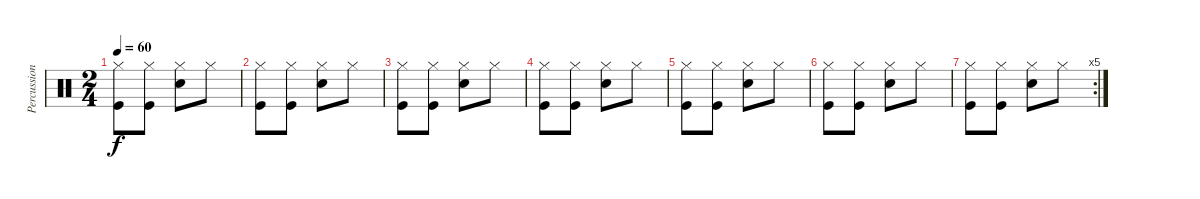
\track ("Percussions" "Percussion") {instrument percussion}
\staff {score}
\articulation defaults
\ts (2 4)
\tempo 60
\clef neutral
\ks c
("Hi-Hat (closed)" "Kick (hit)").8{dy f} ("Hi-Hat (closed)" "Kick (hit)").8 ("Hi-Hat (closed)" "Electric Snare (hit)").8 "Hi-Hat (closed)".8 |
("Hi-Hat (closed)" "Kick (hit)").8 ("Hi-Hat (closed)" "Kick (hit)").8 ("Hi-Hat (closed)" "Electric Snare (hit)").8 "Hi-Hat (closed)".8 |
("Hi-Hat (closed)" "Kick (hit)").8 ("Hi-Hat (closed)" "Kick (hit)").8 ("Hi-Hat (closed)" "Electric Snare (hit)").8 "Hi-Hat (closed)".8 |
("Hi-Hat (closed)" "Kick (hit)").8 ("Hi-Hat (closed)" "Kick (hit)").8 ("Hi-Hat (closed)" "Electric Snare (hit)").8 "Hi-Hat (closed)".8 |
("Hi-Hat (closed)" "Kick (hit)").8 ("Hi-Hat (closed)" "Kick (hit)").8 ("Hi-Hat (closed)" "Electric Snare (hit)").8 "Hi-Hat (closed)".8 |
("Hi-Hat (closed)" "Kick (hit)").8 ("Hi-Hat (closed)" "Kick (hit)").8 ("Hi-Hat (closed)" "Electric Snare (hit)").8 "Hi-Hat (closed)".8 |
\rc 5
("Hi-Hat (closed)" "Kick (hit)").8 ("Hi-Hat (closed)" "Kick (hit)").8 ("Hi-Hat (closed)" "Electric Snare (hit)").8 "Hi-Hat (closed)".8
